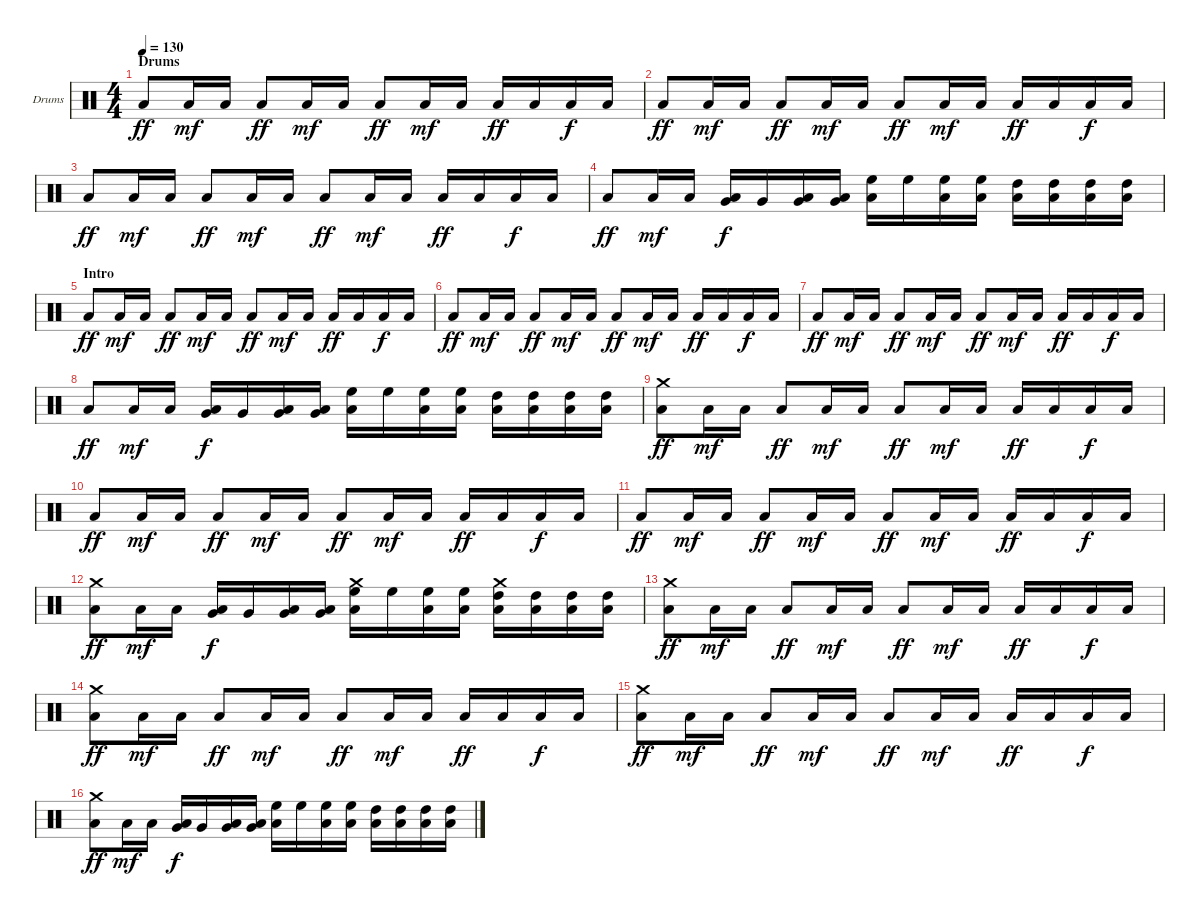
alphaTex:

\defaultSystemsLayout 4
\bracketExtendMode groupsimilarinstruments
\firstSystemTrackNameOrientation horizontal
\otherSystemsTrackNameOrientation horizontal
\track ("Ventor" "Drums") {instrument percussion}
\staff {score}
\articulation defaults
\ts (4 4)
\section ("" "Drums")
\tempo 130
\clef neutral
\ks c "Low Tom (hit)".8{dy ff} "Low Tom (hit)".16{dy mf} "Low Tom (hit)".16 "Low Tom (hit)".8{dy ff} "Low Tom (hit)".16{dy mf} "Low Tom (hit)".16 "Low Tom (hit)".8{dy ff} "Low Tom (hit)".16{dy mf} "Low Tom (hit)".16 "Low Tom (hit)".16{dy ff} "Low Tom (hit)".16 "Low Tom (hit)".16{dy f} "Low Tom (hit)".16
|
"Low Tom (hit)".8{dy ff} "Low Tom (hit)".16{dy mf} "Low Tom (hit)".16 "Low Tom (hit)".8{dy ff} "Low Tom (hit)".16{dy mf} "Low Tom (hit)".16 "Low Tom (hit)".8{dy ff} "Low Tom (hit)".16{dy mf} "Low Tom (hit)".16 "Low Tom (hit)".16{dy ff} "Low Tom (hit)".16 "Low Tom (hit)".16{dy f} "Low Tom (hit)".16 |
"Low Tom (hit)".8{dy ff} "Low Tom (hit)".16{dy mf} "Low Tom (hit)".16 "Low Tom (hit)".8{dy ff} "Low Tom (hit)".16{dy mf} "Low Tom (hit)".16 "Low Tom (hit)".8{dy ff} "Low Tom (hit)".16{dy mf} "Low Tom (hit)".16 "Low Tom (hit)".16{dy ff} "Low Tom (hit)".16 "Low Tom (hit)".16{dy f} "Low Tom (hit)".16 |
"Low Tom (hit)".8{dy ff} "Low Tom (hit)".16{dy mf} "Low Tom (hit)".16 ("Low Tom (hit)" "Very Low Tom (hit)").16{dy f} "Very Low Tom (hit)".16 ("Low Tom (hit)" "Very Low Tom (hit)").16 ("Low Tom (hit)" "Very Low Tom (hit)").16 ("Low Tom (hit)" "High Floor Tom (hit)").16 "High Floor Tom (hit)".16 ("Low Tom (hit)" "High Floor Tom (hit)").16 ("Low Tom (hit)" "High Floor Tom (hit)").16 ("Low Tom (hit)" "High Tom (hit)").16 ("Low Tom (hit)" "High Tom (hit)").16 ("Low Tom (hit)" "High Tom (hit)").16 ("Low Tom (hit)" "High Tom (hit)").16 |
\section ("" "Intro")
\scale
0.641509 "Low Tom (hit)".8{dy ff} "Low Tom (hit)".16{dy mf} "Low Tom (hit)".16 "Low Tom (hit)".8{dy ff} "Low Tom (hit)".16{dy mf} "Low Tom (hit)".16 "Low Tom (hit)".8{dy ff} "Low Tom (hit)".16{dy mf} "Low Tom (hit)".16 "Low Tom (hit)".16{dy ff} "Low Tom (hit)".16 "Low Tom (hit)".16{dy f} "Low Tom (hit)".16 |
\scale
0.358491 "Low Tom (hit)".8{dy ff} "Low Tom (hit)".16{dy mf} "Low Tom (hit)".16 "Low Tom (hit)".8{dy ff} "Low Tom (hit)".16{dy mf} "Low Tom (hit)".16 "Low Tom (hit)".8{dy ff} "Low Tom (hit)".16{dy mf} "Low Tom (hit)".16 "Low Tom (hit)".16{dy ff} "Low Tom (hit)".16 "Low Tom (hit)".16{dy f} "Low Tom (hit)".16 |
\scale
0.5 "Low Tom (hit)".8{dy ff} "Low Tom (hit)".16{dy mf} "Low Tom (hit)".16 "Low Tom (hit)".8{dy ff} "Low Tom (hit)".16{dy mf} "Low Tom (hit)".16 "Low Tom (hit)".8{dy ff} "Low Tom (hit)".16{dy mf} "Low Tom (hit)".16 "Low Tom (hit)".16{dy ff} "Low Tom (hit)".16 "Low Tom (hit)".16{dy f} "Low Tom (hit)".16 |
\scale
0.5 "Low Tom (hit)".8{dy ff} "Low Tom (hit)".16{dy mf} "Low Tom (hit)".16 ("Low Tom (hit)" "Very Low Tom (hit)").16{dy f} "Very Low Tom (hit)".16 ("Low Tom (hit)" "Very Low Tom (hit)").16 ("Low Tom (hit)" "Very Low Tom (hit)").16 ("Low Tom (hit)" "High Floor Tom (hit)").16 "High Floor Tom (hit)".16 ("Low Tom (hit)" "High Floor Tom (hit)").16 ("Low Tom (hit)" "High Floor Tom (hit)").16 ("Low Tom (hit)" "High Tom (hit)").16 ("Low Tom (hit)" "High Tom (hit)").16 ("Low Tom (hit)" "High Tom (hit)").16 ("Low Tom (hit)" "High Tom (hit)").16 |
\scale
0.5 ("Low Tom (hit)" "Crash medium (hit)").8{dy ff} "Low Tom (hit)".16{dy mf} "Low Tom (hit)".16 "Low Tom (hit)".8{dy ff} "Low Tom (hit)".16{dy mf} "Low Tom (hit)".16 "Low Tom (hit)".8{dy ff} "Low Tom (hit)".16{dy mf} "Low Tom (hit)".16 "Low Tom (hit)".16{dy ff} "Low Tom (hit)".16 "Low Tom (hit)".16{dy f} "Low Tom (hit)".16 |
\scale
0.5 "Low Tom (hit)".8{dy ff} "Low Tom (hit)".16{dy mf} "Low Tom (hit)".16 "Low Tom (hit)".8{dy ff} "Low Tom (hit)".16{dy mf} "Low Tom (hit)".16 "Low Tom (hit)".8{dy ff} "Low Tom (hit)".16{dy mf} "Low Tom (hit)".16 "Low Tom (hit)".16{dy ff} "Low Tom (hit)".16 "Low Tom (hit)".16{dy f} "Low Tom (hit)".16 |
\scale
0.5 "Low Tom (hit)".8{dy ff} "Low Tom (hit)".16{dy mf} "Low Tom (hit)".16 "Low Tom (hit)".8{dy ff} "Low Tom (hit)".16{dy mf} "Low Tom (hit)".16 "Low Tom (hit)".8{dy ff} "Low Tom (hit)".16{dy mf} "Low Tom (hit)".16 "Low Tom (hit)".16{dy ff} "Low Tom (hit)".16 "Low Tom (hit)".16{dy f} "Low Tom (hit)".16 |
\scale
0.5 ("Low Tom (hit)" "Crash medium (hit)").8{dy ff} "Low Tom (hit)".16{dy mf} "Low Tom (hit)".16 ("Low Tom (hit)" "Very Low Tom (hit)").16{dy f} "Very Low Tom (hit)".16 ("Low Tom (hit)" "Very Low Tom (hit)").16 ("Low Tom (hit)" "Very Low Tom (hit)").16 ("Low Tom (hit)" "High Floor Tom (hit)" "Crash medium (hit)").16 "High Floor Tom (hit)".16 ("Low Tom (hit)" "High Floor Tom (hit)").16 ("Low Tom (hit)" "High Floor Tom (hit)").16 ("Low Tom (hit)" "High Tom (hit)" "Crash medium (hit)").16 ("Low Tom (hit)" "High Tom (hit)").16 ("Low Tom (hit)" "High Tom (hit)").16 ("Low Tom (hit)" "High Tom (hit)").16 |
\scale
0.5 ("Low Tom (hit)" "Crash medium (hit)").8{dy ff} "Low Tom (hit)".16{dy mf} "Low Tom (hit)".16 "Low Tom (hit)".8{dy ff} "Low Tom (hit)".16{dy mf} "Low Tom (hit)".16 "Low Tom (hit)".8{dy ff} "Low Tom (hit)".16{dy mf} "Low Tom (hit)".16 "Low Tom (hit)".16{dy ff} "Low Tom (hit)".16 "Low Tom (hit)".16{dy f} "Low Tom (hit)".16 |
\scale
0.5 ("Low Tom (hit)" "Crash medium (hit)").8{dy ff} "Low Tom (hit)".16{dy mf} "Low Tom (hit)".16 "Low Tom (hit)".8{dy ff} "Low Tom (hit)".16{dy mf} "Low Tom (hit)".16 "Low Tom (hit)".8{dy ff} "Low Tom (hit)".16{dy mf} "Low Tom (hit)".16 "Low Tom (hit)".16{dy ff} "Low Tom (hit)".16 "Low Tom (hit)".16{dy f} "Low Tom (hit)".16 |
\scale
0.5 ("Low Tom (hit)" "Crash medium (hit)").8{dy ff} "Low Tom (hit)".16{dy mf} "Low Tom (hit)".16 "Low Tom (hit)".8{dy ff} "Low Tom (hit)".16{dy mf} "Low Tom (hit)".16 "Low Tom (hit)".8{dy ff} "Low Tom (hit)".16{dy mf} "Low Tom (hit)".16 "Low Tom (hit)".16{dy ff} "Low Tom (hit)".16 "Low Tom (hit)".16{dy f} "Low Tom (hit)".16 |
\scale
0.5 ("Low Tom (hit)" "Crash medium (hit)").8{dy ff} "Low Tom (hit)".16{dy mf} "Low Tom (hit)".16 ("Low Tom (hit)" "Very Low Tom (hit)").16{dy f} "Very Low Tom (hit)".16 ("Low Tom (hit)" "Very Low Tom (hit)").16 ("Low Tom (hit)" "Very Low Tom (hit)").16 ("Low Tom (hit)" "High Floor Tom (hit)").16 "High Floor Tom (hit)".16 ("Low Tom (hit)" "High Floor Tom (hit)").16 ("Low Tom (hit)" "High Floor Tom (hit)").16 ("Low Tom (hit)" "High Tom (hit)").16 ("Low Tom (hit)" "High Tom (hit)").16 ("Low Tom (hit)" "High Tom (hit)").16 ("Low Tom (hit)" "High Tom (hit)").16
